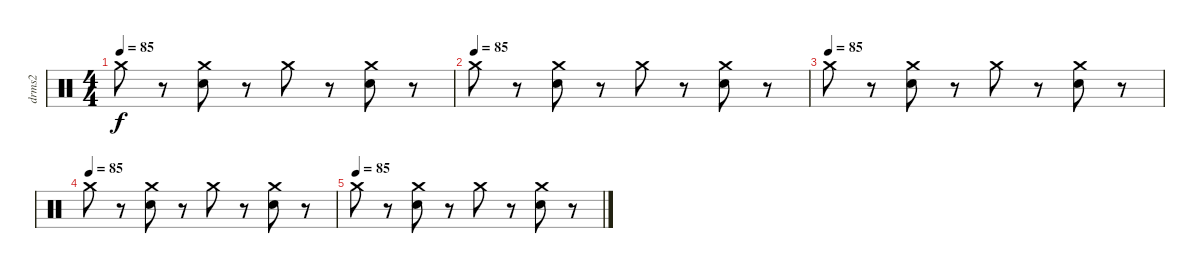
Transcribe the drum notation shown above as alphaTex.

\track ("drms2" "drms2") {instrument percussion}
\staff {score}
\articulation defaults
\ts (4 4)
\tempo 85
\clef neutral
\ks c "Crash medium (hit)".8{dy f}
r.8 ("Crash medium (hit)" "Electric Snare (hit)").8 r.8 "Crash medium (hit)".8 r.8 ("Crash medium (hit)" "Electric Snare (hit)").8 r.8 |
\tempo (85)
"Crash medium (hit)".8 r.8 ("Crash medium (hit)" "Electric Snare (hit)").8 r.8 "Crash medium (hit)".8 r.8 ("Crash medium (hit)" "Electric Snare (hit)").8 r.8 |
\tempo (85)
"Crash medium (hit)".8 r.8 ("Crash medium (hit)" "Electric Snare (hit)").8 r.8 "Crash medium (hit)".8 r.8 ("Crash medium (hit)" "Electric Snare (hit)").8 r.8 |
\tempo (85)
"Crash medium (hit)".8 r.8 ("Crash medium (hit)" "Electric Snare (hit)").8 r.8 "Crash medium (hit)".8 r.8 ("Crash medium (hit)" "Electric Snare (hit)").8 r.8 |
\tempo (85)
"Crash medium (hit)".8 r.8 ("Crash medium (hit)" "Electric Snare (hit)").8 r.8 "Crash medium (hit)".8 r.8 ("Crash medium (hit)" "Electric Snare (hit)").8 r.8
